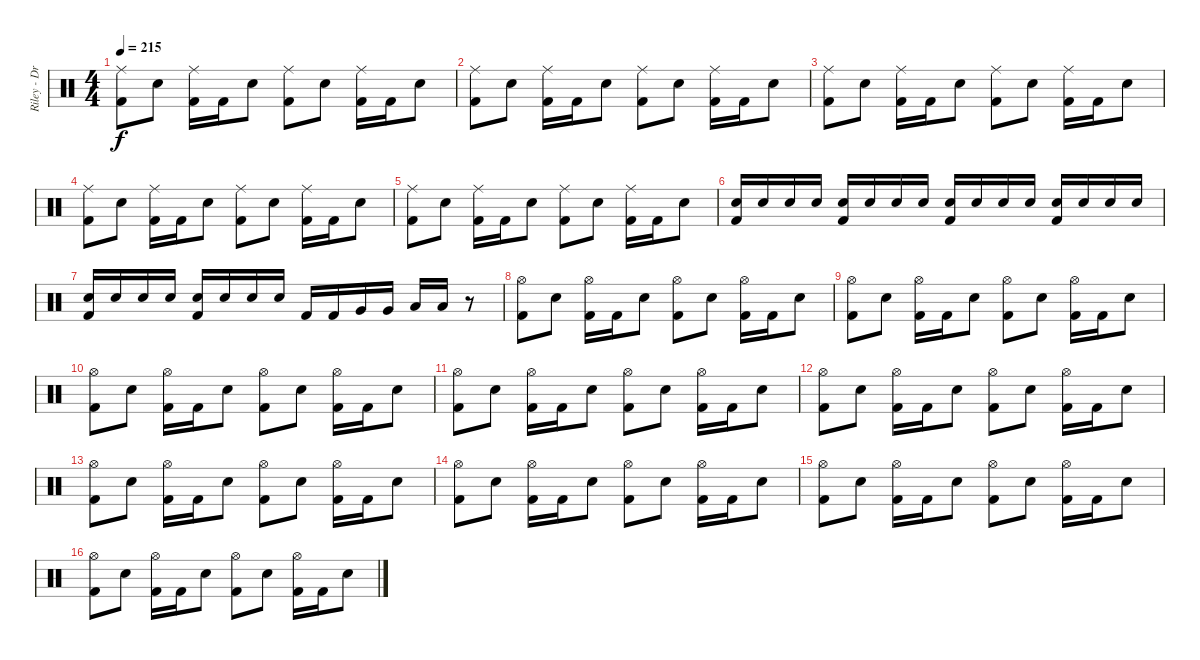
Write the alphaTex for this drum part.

\track ("Riley - Drums" "Riley - Dr") {instrument percussion}
\staff {score}
\articulation defaults
\ts (4 4)
\tempo 215
\clef neutral
\ks c
("Ride (middle)" "Kick (hit) 2").8{dy f} "Electric Snare (hit)".8 ("Ride (middle)" "Kick (hit) 2").16 "Kick (hit) 2".16 "Electric Snare (hit)".8 ("Ride (middle)" "Kick (hit) 2").8 "Electric Snare (hit)".8 ("Ride (middle)" "Kick (hit) 2").16 "Kick (hit) 2".16 "Electric Snare (hit)".8 |
("Ride (middle)" "Kick (hit) 2").8 "Electric Snare (hit)".8 ("Ride (middle)" "Kick (hit) 2").16 "Kick (hit) 2".16 "Electric Snare (hit)".8 ("Ride (middle)" "Kick (hit) 2").8 "Electric Snare (hit)".8 ("Ride (middle)" "Kick (hit) 2").16 "Kick (hit) 2".16 "Electric Snare (hit)".8 |
("Ride (middle)" "Kick (hit) 2").8 "Electric Snare (hit)".8 ("Ride (middle)" "Kick (hit) 2").16 "Kick (hit) 2".16 "Electric Snare (hit)".8 ("Ride (middle)" "Kick (hit) 2").8 "Electric Snare (hit)".8 ("Ride (middle)" "Kick (hit) 2").16 "Kick (hit) 2".16 "Electric Snare (hit)".8 |
("Ride (middle)" "Kick (hit) 2").8 "Electric Snare (hit)".8 ("Ride (middle)" "Kick (hit) 2").16 "Kick (hit) 2".16 "Electric Snare (hit)".8 ("Ride (middle)" "Kick (hit) 2").8 "Electric Snare (hit)".8 ("Ride (middle)" "Kick (hit) 2").16 "Kick (hit) 2".16 "Electric Snare (hit)".8 |
("Ride (middle)" "Kick (hit) 2").8 "Electric Snare (hit)".8 ("Ride (middle)" "Kick (hit) 2").16 "Kick (hit) 2".16 "Electric Snare (hit)".8 ("Ride (middle)" "Kick (hit) 2").8 "Electric Snare (hit)".8 ("Ride (middle)" "Kick (hit) 2").16 "Kick (hit) 2".16 "Electric Snare (hit)".8 |
("Electric Snare (hit)" "Kick (hit) 2").16 "Electric Snare (hit)".16 "Electric Snare (hit)".16 "Electric Snare (hit)".16 ("Electric Snare (hit)" "Kick (hit) 2").16 "Electric Snare (hit)".16 "Electric Snare (hit)".16 "Electric Snare (hit)".16 ("Electric Snare (hit)" "Kick (hit) 2").16 "Electric Snare (hit)".16 "Electric Snare (hit)".16 "Electric Snare (hit)".16 ("Electric Snare (hit)" "Kick (hit) 2").16 "Electric Snare (hit)".16 "Electric Snare (hit)".16 "Electric Snare (hit)".16 |
("Electric Snare (hit)" "Kick (hit) 2").16 "Electric Snare (hit)".16 "Electric Snare (hit)".16 "Electric Snare (hit)".16 ("Electric Snare (hit)" "Kick (hit) 2").16 "Electric Snare (hit)".16 "Electric Snare (hit)".16 "Electric Snare (hit)".16 "Kick (hit) 2".16 "Kick (hit) 2".16 "Very Low Tom (hit)".16 "Very Low Tom (hit)".16 "Low Floor Tom (hit)".16 "Low Floor Tom (hit)".16 r.8 |
("Hi-Hat (open)" "Kick (hit) 2").8 "Electric Snare (hit)".8 ("Hi-Hat (open)" "Kick (hit) 2").16 "Kick (hit) 2".16 "Electric Snare (hit)".8 ("Hi-Hat (open)" "Kick (hit) 2").8 "Electric Snare (hit)".8 ("Hi-Hat (open)" "Kick (hit) 2").16 "Kick (hit) 2".16 "Electric Snare (hit)".8 |
("Hi-Hat (open)" "Kick (hit) 2").8 "Electric Snare (hit)".8 ("Hi-Hat (open)" "Kick (hit) 2").16 "Kick (hit) 2".16 "Electric Snare (hit)".8 ("Hi-Hat (open)" "Kick (hit) 2").8 "Electric Snare (hit)".8 ("Hi-Hat (open)" "Kick (hit) 2").16 "Kick (hit) 2".16 "Electric Snare (hit)".8 |
("Hi-Hat (open)" "Kick (hit) 2").8 "Electric Snare (hit)".8 ("Hi-Hat (open)" "Kick (hit) 2").16 "Kick (hit) 2".16 "Electric Snare (hit)".8 ("Hi-Hat (open)" "Kick (hit) 2").8 "Electric Snare (hit)".8 ("Hi-Hat (open)" "Kick (hit) 2").16 "Kick (hit) 2".16 "Electric Snare (hit)".8 |
("Hi-Hat (open)" "Kick (hit) 2").8 "Electric Snare (hit)".8 ("Hi-Hat (open)" "Kick (hit) 2").16 "Kick (hit) 2".16 "Electric Snare (hit)".8 ("Hi-Hat (open)" "Kick (hit) 2").8 "Electric Snare (hit)".8 ("Hi-Hat (open)" "Kick (hit) 2").16 "Kick (hit) 2".16 "Electric Snare (hit)".8 |
("Hi-Hat (open)" "Kick (hit) 2").8 "Electric Snare (hit)".8 ("Hi-Hat (open)" "Kick (hit) 2").16 "Kick (hit) 2".16 "Electric Snare (hit)".8 ("Hi-Hat (open)" "Kick (hit) 2").8 "Electric Snare (hit)".8 ("Hi-Hat (open)" "Kick (hit) 2").16 "Kick (hit) 2".16 "Electric Snare (hit)".8 |
("Hi-Hat (open)" "Kick (hit) 2").8 "Electric Snare (hit)".8 ("Hi-Hat (open)" "Kick (hit) 2").16 "Kick (hit) 2".16 "Electric Snare (hit)".8 ("Hi-Hat (open)" "Kick (hit) 2").8 "Electric Snare (hit)".8 ("Hi-Hat (open)" "Kick (hit) 2").16 "Kick (hit) 2".16 "Electric Snare (hit)".8 |
("Hi-Hat (open)" "Kick (hit) 2").8 "Electric Snare (hit)".8 ("Hi-Hat (open)" "Kick (hit) 2").16 "Kick (hit) 2".16 "Electric Snare (hit)".8 ("Hi-Hat (open)" "Kick (hit) 2").8 "Electric Snare (hit)".8 ("Hi-Hat (open)" "Kick (hit) 2").16 "Kick (hit) 2".16 "Electric Snare (hit)".8 |
("Hi-Hat (open)" "Kick (hit) 2").8 "Electric Snare (hit)".8 ("Hi-Hat (open)" "Kick (hit) 2").16 "Kick (hit) 2".16 "Electric Snare (hit)".8 ("Hi-Hat (open)" "Kick (hit) 2").8 "Electric Snare (hit)".8 ("Hi-Hat (open)" "Kick (hit) 2").16 "Kick (hit) 2".16 "Electric Snare (hit)".8 |
("Hi-Hat (open)" "Kick (hit) 2").8 "Electric Snare (hit)".8 ("Hi-Hat (open)" "Kick (hit) 2").16 "Kick (hit) 2".16 "Electric Snare (hit)".8 ("Hi-Hat (open)" "Kick (hit) 2").8 "Electric Snare (hit)".8 ("Hi-Hat (open)" "Kick (hit) 2").16 "Kick (hit) 2".16 "Electric Snare (hit)".8
